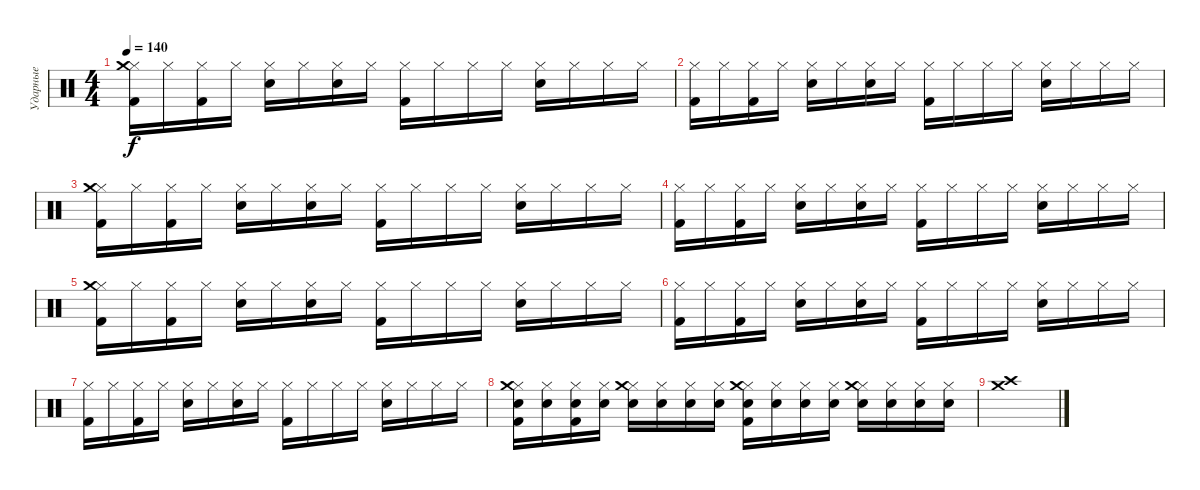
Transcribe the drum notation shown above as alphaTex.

\track ("Ударные" "Ударные") {instrument percussion}
\staff {score}
\articulation defaults
\ts (4 4)
\tempo 140
\clef neutral
\ks c
("Hi-Hat (closed)" "Kick (hit) 2" "Crash medium (hit)").16{dy f} "Hi-Hat (closed)".16 ("Hi-Hat (closed)" "Kick (hit) 2").16 "Hi-Hat (closed)".16 ("Hi-Hat (closed)" "Electric Snare (hit)").16 "Hi-Hat (closed)".16 ("Hi-Hat (closed)" "Electric Snare (hit)").16 "Hi-Hat (closed)".16 ("Hi-Hat (closed)" "Kick (hit) 2").16 "Hi-Hat (closed)".16 "Hi-Hat (closed)".16 "Hi-Hat (closed)".16 ("Hi-Hat (closed)" "Electric Snare (hit)").16 "Hi-Hat (closed)".16 "Hi-Hat (closed)".16 "Hi-Hat (closed)".16 |
("Hi-Hat (closed)" "Kick (hit) 2").16 "Hi-Hat (closed)".16 ("Hi-Hat (closed)" "Kick (hit) 2").16 "Hi-Hat (closed)".16 ("Hi-Hat (closed)" "Electric Snare (hit)").16 "Hi-Hat (closed)".16 ("Hi-Hat (closed)" "Electric Snare (hit)").16 "Hi-Hat (closed)".16 ("Hi-Hat (closed)" "Kick (hit) 2").16 "Hi-Hat (closed)".16 "Hi-Hat (closed)".16 "Hi-Hat (closed)".16 ("Hi-Hat (closed)" "Electric Snare (hit)").16 "Hi-Hat (closed)".16 "Hi-Hat (closed)".16 "Hi-Hat (closed)".16 |
("Hi-Hat (closed)" "Kick (hit) 2" "Crash medium (hit)").16 "Hi-Hat (closed)".16 ("Hi-Hat (closed)" "Kick (hit) 2").16 "Hi-Hat (closed)".16 ("Hi-Hat (closed)" "Electric Snare (hit)").16 "Hi-Hat (closed)".16 ("Hi-Hat (closed)" "Electric Snare (hit)").16 "Hi-Hat (closed)".16 ("Hi-Hat (closed)" "Kick (hit) 2").16 "Hi-Hat (closed)".16 "Hi-Hat (closed)".16 "Hi-Hat (closed)".16 ("Hi-Hat (closed)" "Electric Snare (hit)").16 "Hi-Hat (closed)".16 "Hi-Hat (closed)".16 "Hi-Hat (closed)".16 |
("Hi-Hat (closed)" "Kick (hit) 2").16 "Hi-Hat (closed)".16 ("Hi-Hat (closed)" "Kick (hit) 2").16 "Hi-Hat (closed)".16 ("Hi-Hat (closed)" "Electric Snare (hit)").16 "Hi-Hat (closed)".16 ("Hi-Hat (closed)" "Electric Snare (hit)").16 "Hi-Hat (closed)".16 ("Hi-Hat (closed)" "Kick (hit) 2").16 "Hi-Hat (closed)".16 "Hi-Hat (closed)".16 "Hi-Hat (closed)".16 ("Hi-Hat (closed)" "Electric Snare (hit)").16 "Hi-Hat (closed)".16 "Hi-Hat (closed)".16 "Hi-Hat (closed)".16 |
("Hi-Hat (closed)" "Kick (hit) 2" "Crash medium (hit)").16 "Hi-Hat (closed)".16 ("Hi-Hat (closed)" "Kick (hit) 2").16 "Hi-Hat (closed)".16 ("Hi-Hat (closed)" "Electric Snare (hit)").16 "Hi-Hat (closed)".16 ("Hi-Hat (closed)" "Electric Snare (hit)").16 "Hi-Hat (closed)".16 ("Hi-Hat (closed)" "Kick (hit) 2").16 "Hi-Hat (closed)".16 "Hi-Hat (closed)".16 "Hi-Hat (closed)".16 ("Hi-Hat (closed)" "Electric Snare (hit)").16 "Hi-Hat (closed)".16 "Hi-Hat (closed)".16 "Hi-Hat (closed)".16 |
("Hi-Hat (closed)" "Kick (hit) 2").16 "Hi-Hat (closed)".16 ("Hi-Hat (closed)" "Kick (hit) 2").16 "Hi-Hat (closed)".16 ("Hi-Hat (closed)" "Electric Snare (hit)").16 "Hi-Hat (closed)".16 ("Hi-Hat (closed)" "Electric Snare (hit)").16 "Hi-Hat (closed)".16 ("Hi-Hat (closed)" "Kick (hit) 2").16 "Hi-Hat (closed)".16 "Hi-Hat (closed)".16 "Hi-Hat (closed)".16 ("Hi-Hat (closed)" "Electric Snare (hit)").16 "Hi-Hat (closed)".16 "Hi-Hat (closed)".16 "Hi-Hat (closed)".16 |
("Hi-Hat (closed)" "Kick (hit) 2").16 "Hi-Hat (closed)".16 ("Hi-Hat (closed)" "Kick (hit) 2").16 "Hi-Hat (closed)".16 ("Hi-Hat (closed)" "Electric Snare (hit)").16 "Hi-Hat (closed)".16 ("Hi-Hat (closed)" "Electric Snare (hit)").16 "Hi-Hat (closed)".16 ("Hi-Hat (closed)" "Kick (hit) 2").16 "Hi-Hat (closed)".16 "Hi-Hat (closed)".16 "Hi-Hat (closed)".16 ("Hi-Hat (closed)" "Electric Snare (hit)").16 "Hi-Hat (closed)".16 "Hi-Hat (closed)".16 "Hi-Hat (closed)".16 |
("Hi-Hat (closed)" "Kick (hit) 2" "Electric Snare (hit)" "Crash medium (hit)").16 ("Hi-Hat (closed)" "Electric Snare (hit)").16 ("Hi-Hat (closed)" "Kick (hit) 2" "Electric Snare (hit)").16 ("Hi-Hat (closed)" "Electric Snare (hit)").16 ("Hi-Hat (closed)" "Electric Snare (hit)" "Crash medium (hit)").16 ("Hi-Hat (closed)" "Electric Snare (hit)").16 ("Hi-Hat (closed)" "Electric Snare (hit)").16 ("Hi-Hat (closed)" "Electric Snare (hit)").16 ("Hi-Hat (closed)" "Electric Snare (hit)" "Kick (hit) 2" "Crash medium (hit)").16 ("Hi-Hat (closed)" "Electric Snare (hit)").16 ("Hi-Hat (closed)" "Electric Snare (hit)").16 ("Hi-Hat (closed)" "Electric Snare (hit)").16 ("Hi-Hat (closed)" "Electric Snare (hit)" "Crash medium (hit)").16 ("Hi-Hat (closed)" "Electric Snare (hit)").16 ("Hi-Hat (closed)" "Electric Snare (hit)").16 ("Hi-Hat (closed)" "Electric Snare (hit)").16 |
("Crash high (hit)" "Crash medium (hit)").1
